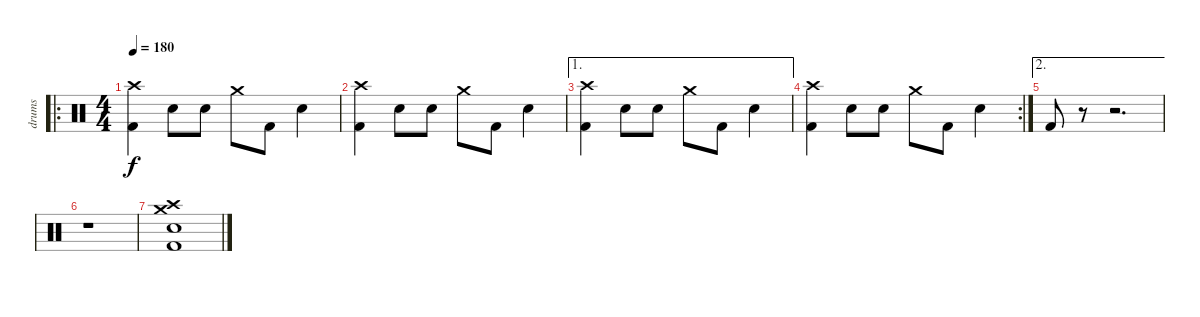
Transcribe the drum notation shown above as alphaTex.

\track ("drums" "drums") {instrument percussion}
\staff {score}
\articulation defaults
\ro
\ts (4 4)
\tempo 180
\clef neutral
\ks c
("Crash high (hit)" "Kick (hit) 2").4{dy f} "Electric Snare (hit)".8 "Electric Snare (hit)".8 "Crash medium (hit)".8 "Kick (hit) 2".8 "Electric Snare (hit)".4 |
("Crash high (hit)" "Kick (hit) 2").4 "Electric Snare (hit)".8 "Electric Snare (hit)".8 "Crash medium (hit)".8 "Kick (hit) 2".8 "Electric Snare (hit)".4 |
\ae 1
("Crash high (hit)" "Kick (hit) 2").4 "Electric Snare (hit)".8 "Electric Snare (hit)".8 "Crash medium (hit)".8 "Kick (hit) 2".8 "Electric Snare (hit)".4 |
\rc 2
("Crash high (hit)" "Kick (hit) 2").4 "Electric Snare (hit)".8 "Electric Snare (hit)".8 "Crash medium (hit)".8 "Kick (hit) 2".8 "Electric Snare (hit)".4 |
\ae 2 "Kick (hit) 2".8
r.8 r.2{d} |
r.1 |
("Crash medium (hit)" "Crash high (hit)" "Electric Snare (hit)" "Kick (hit) 2").1
